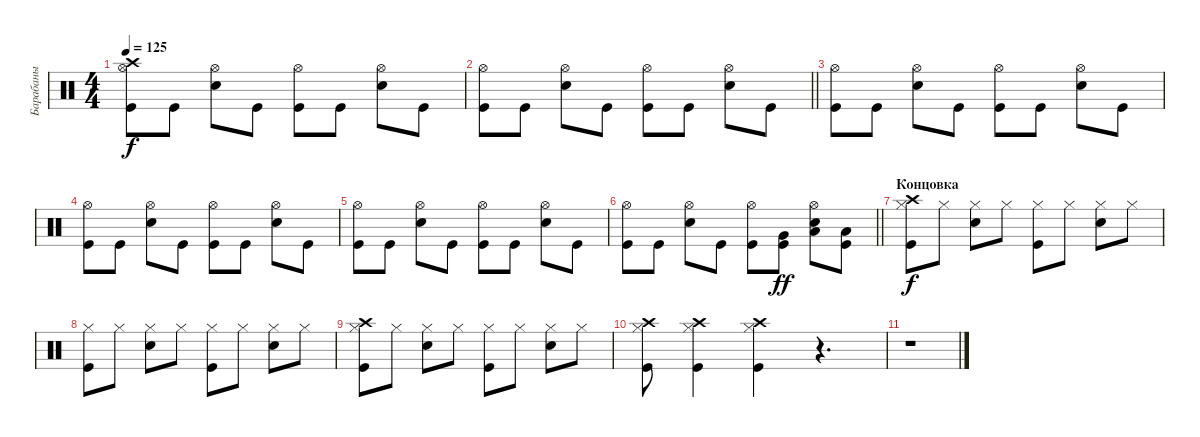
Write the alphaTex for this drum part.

\track ("Барабаны" "Барабаны") {instrument percussion}
\staff {score}
\articulation defaults
\ts (4 4)
\tempo 125
\clef neutral
\ks c
("Kick (hit)" "Hi-Hat (open)" "Crash high (hit)").8{dy f} "Kick (hit)".8 ("Snare (hit) 2" "Hi-Hat (open)").8 "Kick (hit)".8 ("Kick (hit)" "Hi-Hat (open)").8 "Kick (hit)".8 ("Snare (hit) 2" "Hi-Hat (open)").8 "Kick (hit)".8 |
\barLineRight lightlight
("Kick (hit)" "Hi-Hat (open)").8 "Kick (hit)".8 ("Snare (hit) 2" "Hi-Hat (open)").8 "Kick (hit)".8 ("Kick (hit)" "Hi-Hat (open)").8 "Kick (hit)".8 ("Snare (hit) 2" "Hi-Hat (open)").8 "Kick (hit)".8 |
("Kick (hit)" "Hi-Hat (open)").8 "Kick (hit)".8 ("Snare (hit) 2" "Hi-Hat (open)").8 "Kick (hit)".8 ("Kick (hit)" "Hi-Hat (open)").8 "Kick (hit)".8 ("Snare (hit) 2" "Hi-Hat (open)").8 "Kick (hit)".8 |
("Kick (hit)" "Hi-Hat (open)").8 "Kick (hit)".8 ("Snare (hit) 2" "Hi-Hat (open)").8 "Kick (hit)".8 ("Kick (hit)" "Hi-Hat (open)").8 "Kick (hit)".8 ("Snare (hit) 2" "Hi-Hat (open)").8 "Kick (hit)".8 |
("Kick (hit)" "Hi-Hat (open)").8 "Kick (hit)".8 ("Snare (hit) 2" "Hi-Hat (open)").8 "Kick (hit)".8 ("Kick (hit)" "Hi-Hat (open)").8 "Kick (hit)".8 ("Snare (hit) 2" "Hi-Hat (open)").8 "Kick (hit)".8 |
\barLineRight lightlight
("Kick (hit)" "Hi-Hat (open)").8 "Kick (hit)".8 ("Snare (hit) 2" "Hi-Hat (open)").8 "Kick (hit)".8 ("Kick (hit)" "Hi-Hat (open)").8 ("Kick (hit)" "Very Low Tom (hit)").8{dy ff} ("Snare (hit) 2" "Hi-Hat (open)" "Low Tom (hit)").8 ("Kick (hit)" "Low Tom (hit)").8 |
\section ("" "Концовка")
("Kick (hit)" "Hi-Hat (closed)" "Crash high (hit)").8{dy f} "Hi-Hat (closed)".8 ("Snare (hit) 2" "Hi-Hat (closed)").8 "Hi-Hat (closed)".8 ("Kick (hit)" "Hi-Hat (closed)").8 "Hi-Hat (closed)".8 ("Snare (hit) 2" "Hi-Hat (closed)").8 "Hi-Hat (closed)".8 |
("Kick (hit)" "Hi-Hat (closed)").8 "Hi-Hat (closed)".8 ("Snare (hit) 2" "Hi-Hat (closed)").8 "Hi-Hat (closed)".8 ("Kick (hit)" "Hi-Hat (closed)").8 "Hi-Hat (closed)".8 ("Snare (hit) 2" "Hi-Hat (closed)").8 "Hi-Hat (closed)".8 |
("Kick (hit)" "Hi-Hat (closed)" "Crash high (hit)").8 "Hi-Hat (closed)".8 ("Snare (hit) 2" "Hi-Hat (closed)").8 "Hi-Hat (closed)".8 ("Kick (hit)" "Hi-Hat (closed)").8 "Hi-Hat (closed)".8 ("Snare (hit) 2" "Hi-Hat (closed)").8 "Hi-Hat (closed)".8 |
("Kick (hit)" "Hi-Hat (closed)" "Crash high (hit)").8 ("Kick (hit)" "Hi-Hat (closed)" "Crash high (hit)").4 ("Kick (hit)" "Hi-Hat (closed)" "Crash high (hit)").4 r.4{d} |
r.1
